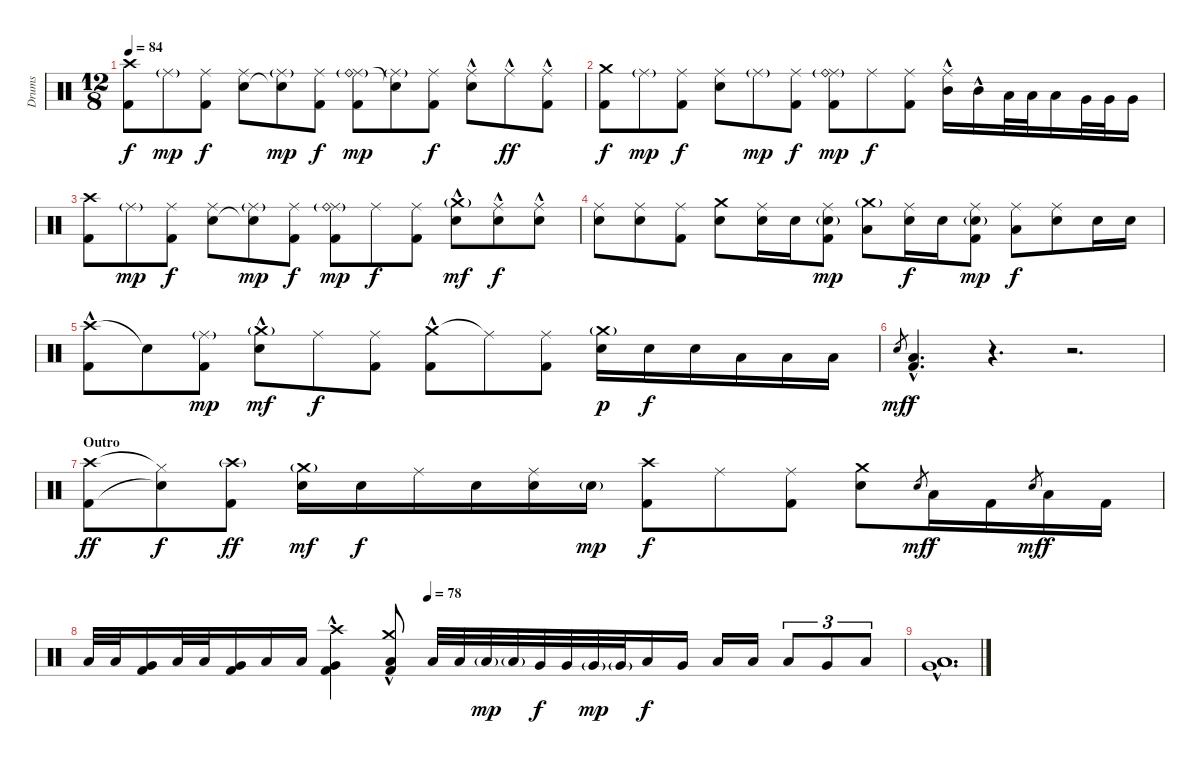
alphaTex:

\track ("Drums" "Drums") {instrument percussion}
\staff {score}
\articulation defaults
\ts (12 8)
\tempo 84
\clef neutral
\ks c
("Crash high (hit)" "Kick (hit) 2").8{dy f} "Ride (middle)"{g}.8{dy mp} ("Ride (middle)" "Kick (hit) 2").8{dy f} ("Ride (middle)" "Electric Snare (hit)").8 ("Ride (middle)"{g} "Snare (hit)"{t}).8{dy mp} ("Ride (middle)" "Kick (hit) 2").8{dy f} ("Ride (middle)" "Ride (bell)"{g} "Kick (hit) 2").8{dy mp} ("Ride (middle)"{g} "Snare (hit)"{t}).8 ("Ride (middle)" "Kick (hit) 2").8{dy f} ("Ride (middle)" "Electric Snare (hit)"{hac}).8 "Ride (middle)"{hac}.8{dy ff} ("Ride (middle)"{hac} "Kick (hit) 2").8 |
("Crash medium (hit)" "Kick (hit) 2").8{dy f} "Ride (middle)"{g}.8{dy mp} ("Ride (middle)" "Kick (hit) 2").8{dy f} ("Ride (middle)" "Electric Snare (hit)").8 "Ride (middle)"{g}.8{dy mp} ("Ride (middle)" "Kick (hit) 2").8{dy f} ("Ride (middle)" "Ride (bell)"{g} "Kick (hit) 2").8{dy mp} "Ride (middle)".8{dy f} ("Ride (middle)" "Kick (hit) 2").8 ("Ride (middle)"{hac} "Mid Tom (hit)").16 "Mid Tom (hit)"{hac}.16 "Low Tom (hit)".32 "Low Tom (hit)".32 "Low Tom (hit)".16 "Very Low Tom (hit)".32 "Very Low Tom (hit)".32 "Very Low Tom (hit)".16 |
("Crash high (hit)" "Kick (hit) 2").8 "Ride (middle)"{g}.8{dy mp} ("Ride (middle)" "Kick (hit) 2").8{dy f} ("Ride (middle)" "Electric Snare (hit)").8 ("Ride (middle)"{g} "Snare (hit)"{t}).8{dy mp} ("Ride (middle)" "Kick (hit) 2").8{dy f} ("Ride (middle)" "Ride (bell)"{g} "Kick (hit) 2").8{dy mp} "Ride (middle)".8{dy f} ("Ride (middle)" "Kick (hit) 2").8 ("Crash medium (hit)"{g} "Electric Snare (hit)"{hac}).8{dy mf} ("Ride (middle)" "Electric Snare (hit)"{hac}).8{dy f} ("Ride (middle)" "Electric Snare (hit)"{hac}).8 |
("Ride (middle)" "Electric Snare (hit)").8 ("Ride (middle)" "Electric Snare (hit)").8 ("Ride (middle)" "Kick (hit) 2").8 ("Crash medium (hit)" "Electric Snare (hit)").8 ("Ride (middle)" "Electric Snare (hit)").16 "Electric Snare (hit)".16 ("Ride (middle)" "Electric Snare (hit)"{g} "Kick (hit) 2").8{dy mp} ("Crash medium (hit)"{g} "Low Tom (hit)").8 ("Ride (middle)" "Electric Snare (hit)").16{dy f} "Electric Snare (hit)".16 ("Ride (middle)" "Electric Snare (hit)"{g} "Kick (hit) 2").8{dy mp} ("Ride (middle)" "Low Tom (hit)").8{dy f} ("Ride (middle)" "Electric Snare (hit)").8 "Electric Snare (hit)".16 "Electric Snare (hit)".16 |
("Crash high (hit)"{hac} "Kick (hit) 2").8 "Snare (hit)"{t}.8 ("Ride (middle)"{g} "Kick (hit) 2").8{dy mp} ("Crash medium (hit)"{g hac} "Electric Snare (hit)").8{dy mf} "Ride (middle)".8{dy f} ("Ride (middle)" "Kick (hit) 2").8 ("Crash medium (hit)"{hac} "Kick (hit) 2").8 "Ride (middle)"{t}.8 ("Ride (middle)" "Kick (hit) 2").8 ("Crash medium (hit)"{g} "Electric Snare (hit)").16{dy p} "Electric Snare (hit)".16{dy f} "Electric Snare (hit)".16 "Low Tom (hit)".16 "Low Tom (hit)".16 "Low Tom (hit)".16 |
"Electric Snare (hit)".8{gr dy mf} ("Low Tom (hit)"{hac} "Kick (hit) 2"{hac}).4{d dy f} r.4{d} r.2{d} |
\section ("" "Outro")
("Crash high (hit)" "Kick (hit) 2").8{dy ff} ("Hi-Hat (closed)"{t} "Snare (hit)"{t}).8{dy f} ("Crash high (hit)"{g} "Kick (hit) 2").8{dy ff} ("Crash medium (hit)"{g} "Electric Snare (hit)").16{dy mf} "Electric Snare (hit)".16{dy f} "Ride (middle)".16 "Electric Snare (hit)".16 ("Ride (middle)" "Electric Snare (hit)").16 "Electric Snare (hit)"{g}.16{dy mp} ("Crash high (hit)" "Kick (hit) 2").8{dy f} "Ride (middle)".8 ("Ride (middle)" "Kick (hit) 2").8 ("Crash medium (hit)" "Electric Snare (hit)").8 "Electric Snare (hit)".8{gr dy mf} "Low Tom (hit)".16{dy f} "Kick (hit) 2".16 "Electric Snare (hit)".8{gr dy mf} "Low Tom (hit)".16{dy f} "Kick (hit) 2".16 |
\tempo (78 0.4166666666666667)
"Low Tom (hit)".32 "Low Tom (hit)".32 ("Very Low Tom (hit)" "Kick (hit) 2").16 "Low Tom (hit)".32 "Low Tom (hit)".32 ("Very Low Tom (hit)" "Kick (hit) 2").16 "Low Floor Tom (hit)".16 "Low Floor Tom (hit)".16 ("Crash high (hit)"{hac} "Very Low Tom (hit)"{hac} "Kick (hit) 2"{hac}).4 ("Crash medium (hit)"{hac} "Low Tom (hit)"{hac} "Kick (hit) 2"{hac}).8{volume 4} "Low Tom (hit)".32 "Low Tom (hit)".32 "Low Tom (hit)"{g}.32{dy mp} "Low Tom (hit)"{g}.32 "Very Low Tom (hit)".32{dy f} "Very Low Tom (hit)".32 "Very Low Tom (hit)"{g}.32{dy mp} "Very Low Tom (hit)"{g}.32 "Low Tom (hit)".16{dy f} "Very Low Tom (hit)".16 "Low Floor Tom (hit)".16 "Low Floor Tom (hit)".16 "Low Tom (hit)".8{tu (3 2)} "Very Low Tom (hit)".8{tu (3 2)} "Low Floor Tom (hit)".8{tu (3 2)} |
("Low Floor Tom (hit)"{hac} "Very Low Tom (hit)"{hac} "Low Tom (hit)"{hac}).1{d bd 240}
